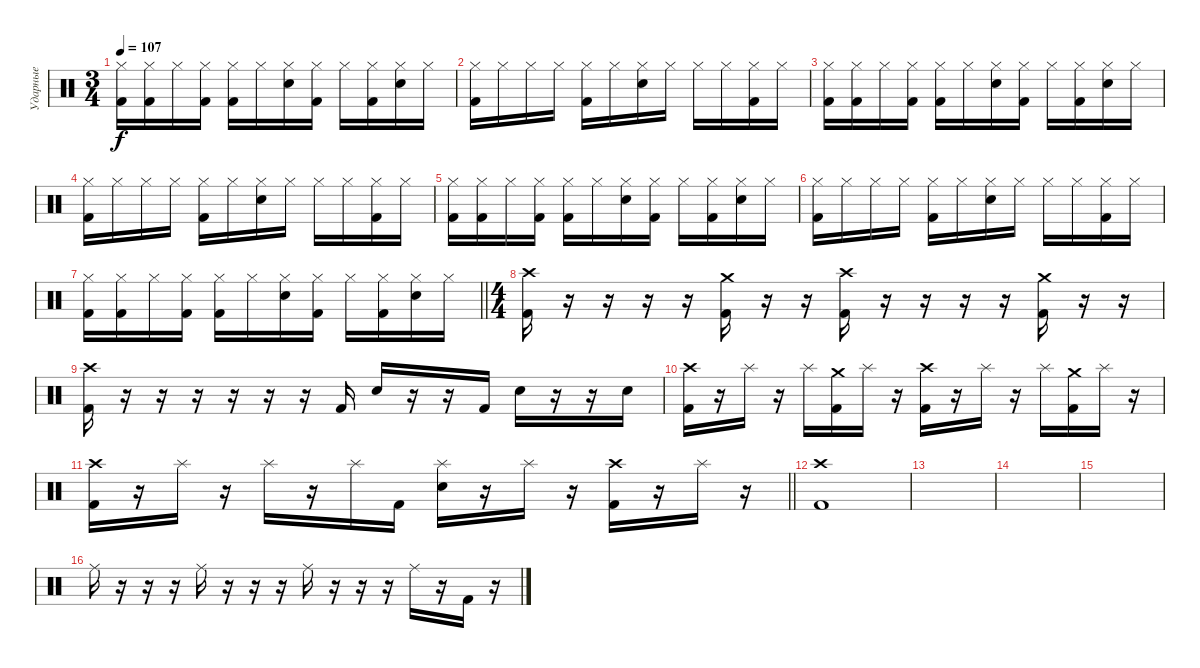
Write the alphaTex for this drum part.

\track ("Ударные" "Ударные") {instrument percussion}
\staff {score}
\articulation defaults
\ts (3 4)
\tempo 107
\clef neutral
\ks c
("Kick (hit) 2" "Hi-Hat (closed)").16{dy f} ("Kick (hit) 2" "Hi-Hat (closed)").16 "Hi-Hat (closed)".16 ("Kick (hit) 2" "Hi-Hat (closed)").16 ("Kick (hit) 2" "Hi-Hat (closed)").16 "Hi-Hat (closed)".16 ("Electric Snare (hit)" "Hi-Hat (closed)").16 ("Kick (hit) 2" "Hi-Hat (closed)").16 "Hi-Hat (closed)".16 ("Kick (hit) 2" "Hi-Hat (closed)").16 ("Electric Snare (hit)" "Hi-Hat (closed)").16 "Hi-Hat (closed)".16 |
("Kick (hit) 2" "Hi-Hat (closed)").16 "Hi-Hat (closed)".16 "Hi-Hat (closed)".16 "Hi-Hat (closed)".16 ("Kick (hit) 2" "Hi-Hat (closed)").16 "Hi-Hat (closed)".16 ("Electric Snare (hit)" "Hi-Hat (closed)").16 "Hi-Hat (closed)".16 "Hi-Hat (closed)".16 "Hi-Hat (closed)".16 ("Kick (hit) 2" "Hi-Hat (closed)").16 "Hi-Hat (closed)".16 |
("Kick (hit) 2" "Hi-Hat (closed)").16 ("Kick (hit) 2" "Hi-Hat (closed)").16 "Hi-Hat (closed)".16 ("Kick (hit) 2" "Hi-Hat (closed)").16 ("Kick (hit) 2" "Hi-Hat (closed)").16 "Hi-Hat (closed)".16 ("Electric Snare (hit)" "Hi-Hat (closed)").16 ("Kick (hit) 2" "Hi-Hat (closed)").16 "Hi-Hat (closed)".16 ("Kick (hit) 2" "Hi-Hat (closed)").16 ("Electric Snare (hit)" "Hi-Hat (closed)").16 "Hi-Hat (closed)".16 |
("Kick (hit) 2" "Hi-Hat (closed)").16 "Hi-Hat (closed)".16 "Hi-Hat (closed)".16 "Hi-Hat (closed)".16 ("Kick (hit) 2" "Hi-Hat (closed)").16 "Hi-Hat (closed)".16 ("Electric Snare (hit)" "Hi-Hat (closed)").16 "Hi-Hat (closed)".16 "Hi-Hat (closed)".16 "Hi-Hat (closed)".16 ("Kick (hit) 2" "Hi-Hat (closed)").16 "Hi-Hat (closed)".16 |
("Kick (hit) 2" "Hi-Hat (closed)").16 ("Kick (hit) 2" "Hi-Hat (closed)").16 "Hi-Hat (closed)".16 ("Kick (hit) 2" "Hi-Hat (closed)").16 ("Kick (hit) 2" "Hi-Hat (closed)").16 "Hi-Hat (closed)".16 ("Electric Snare (hit)" "Hi-Hat (closed)").16 ("Kick (hit) 2" "Hi-Hat (closed)").16 "Hi-Hat (closed)".16 ("Kick (hit) 2" "Hi-Hat (closed)").16 ("Electric Snare (hit)" "Hi-Hat (closed)").16 "Hi-Hat (closed)".16 |
("Kick (hit) 2" "Hi-Hat (closed)").16 "Hi-Hat (closed)".16 "Hi-Hat (closed)".16 "Hi-Hat (closed)".16 ("Kick (hit) 2" "Hi-Hat (closed)").16 "Hi-Hat (closed)".16 ("Electric Snare (hit)" "Hi-Hat (closed)").16 "Hi-Hat (closed)".16 "Hi-Hat (closed)".16 "Hi-Hat (closed)".16 ("Kick (hit) 2" "Hi-Hat (closed)").16 "Hi-Hat (closed)".16 |
\barLineRight lightlight
("Kick (hit) 2" "Hi-Hat (closed)").16 ("Kick (hit) 2" "Hi-Hat (closed)").16 "Hi-Hat (closed)".16 ("Kick (hit) 2" "Hi-Hat (closed)").16 ("Kick (hit) 2" "Hi-Hat (closed)").16 "Hi-Hat (closed)".16 ("Electric Snare (hit)" "Hi-Hat (closed)").16 ("Kick (hit) 2" "Hi-Hat (closed)").16 "Hi-Hat (closed)".16 ("Kick (hit) 2" "Hi-Hat (closed)").16 ("Electric Snare (hit)" "Hi-Hat (closed)").16 "Hi-Hat (closed)".16 |
\ts (4 4)
\section ("" "")
("Kick (hit) 2" "Crash high (hit)").16 r.16 r.16 r.16 r.16 ("Kick (hit) 2" "Crash medium (hit)").16 r.16 r.16 ("Kick (hit) 2" "Crash high (hit)").16 r.16 r.16 r.16 r.16 ("Kick (hit) 2" "Crash medium (hit)").16 r.16 r.16 |
("Kick (hit) 2" "Crash high (hit)").16 r.16 r.16 r.16 r.16 r.16 r.16 "Kick (hit) 2".16 "Electric Snare (hit)".16 r.16 r.16 "Kick (hit) 2".16 "Electric Snare (hit)".16 r.16 r.16 "Electric Snare (hit)".16 |
("Kick (hit) 2" "Crash high (hit)").16 r.16 "Splash (hit)".16 r.16 "Splash (hit)".16 ("Kick (hit) 2" "Crash medium (hit)").16 "Splash (hit)".16 r.16 ("Kick (hit) 2" "Crash high (hit)").16 r.16 "Splash (hit)".16 r.16 "Splash (hit)".16 ("Kick (hit) 2" "Crash medium (hit)").16 "Splash (hit)".16 r.16 |
\barLineRight lightlight
("Kick (hit) 2" "Crash high (hit)").16 r.16 "Splash (hit)".16 r.16 "Splash (hit)".16 r.16 "Splash (hit)".16 "Kick (hit) 2".16 ("Electric Snare (hit)" "Splash (hit)").16 r.16 "Splash (hit)".16 r.16 ("Crash high (hit)" "Kick (hit) 2").16 r.16 "Splash (hit)".16 r.16 |
\section ("" "")
("Kick (hit) 2" "Crash high (hit)").1 |
|
|
|
"Ride (middle)".16 r.16 r.16 r.16 "Ride (middle)".16 r.16 r.16 r.16 "Ride (middle)".16 r.16 r.16 r.16 "Ride (middle)".16 r.16 "Kick (hit) 2".16 r.16
